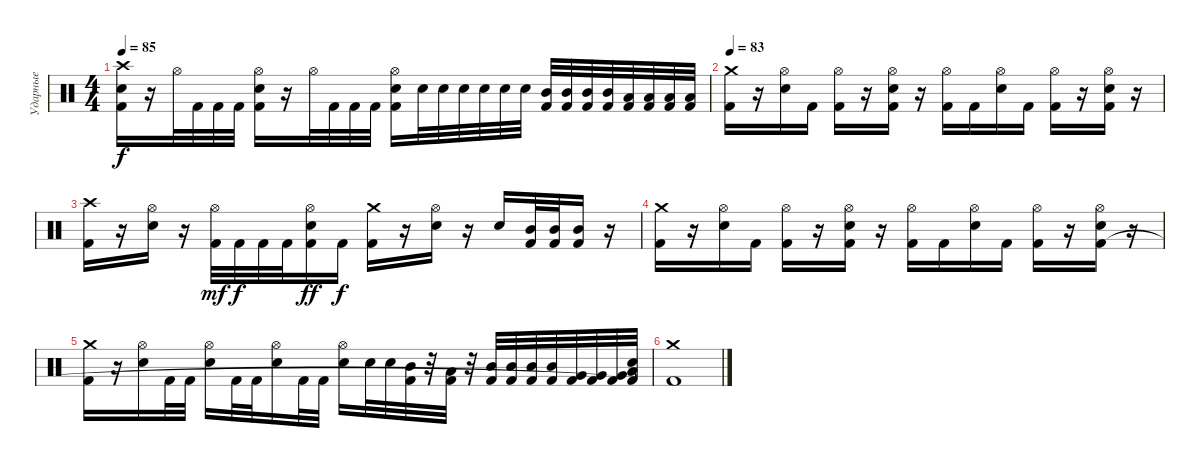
\track ("Ударные" "Ударные") {instrument percussion}
\staff {score}
\articulation defaults
\ts (4 4)
\tempo 85
\clef neutral
\ks c
("Crash high (hit)" "Electric Snare (hit)" "Kick (hit) 2").16{dy f} r.16 "Hi-Hat (open)".32 "Kick (hit) 2".32 "Kick (hit) 2".32 "Kick (hit) 2".32 ("Hi-Hat (open)" "Electric Snare (hit)" "Kick (hit) 2").16 r.16 "Hi-Hat (open)".32 "Kick (hit) 2".32 "Kick (hit) 2".32 "Kick (hit) 2".32 ("Hi-Hat (open)" "Electric Snare (hit)" "Kick (hit) 2").16 "Electric Snare (hit)".32 "Electric Snare (hit)".32 "Electric Snare (hit)".32 "Electric Snare (hit)".32 "Electric Snare (hit)".32 "Electric Snare (hit)".32 ("Mid Tom (hit)" "Kick (hit) 2").32 ("Mid Tom (hit)" "Kick (hit) 2").32 ("Mid Tom (hit)" "Kick (hit) 2").32 ("Mid Tom (hit)" "Kick (hit) 2").32 ("Low Tom (hit)" "Kick (hit) 2").32 ("Low Tom (hit)" "Kick (hit) 2").32 ("Low Tom (hit)" "Kick (hit) 2").32 ("Low Tom (hit)" "Kick (hit) 2").32 |
\tempo 83
("Crash medium (hit)" "Kick (hit) 2").16 r.16 ("Hi-Hat (open)" "Electric Snare (hit)").16 "Kick (hit) 2".16 ("Hi-Hat (open)" "Kick (hit) 2").16 r.16 ("Hi-Hat (open)" "Electric Snare (hit)" "Kick (hit) 2").16 r.16 ("Hi-Hat (open)" "Kick (hit) 2").16 "Kick (hit) 2".16 ("Hi-Hat (open)" "Electric Snare (hit)").16 "Kick (hit) 2".16 ("Hi-Hat (open)" "Kick (hit) 2").16 r.16 ("Hi-Hat (open)" "Electric Snare (hit)" "Kick (hit) 2").16 r.16 |
("Crash high (hit)" "Kick (hit) 2").16 r.16 ("Hi-Hat (open)" "Electric Snare (hit)").16 r.16 ("Hi-Hat (open)" "Kick (hit) 2").32{dy mf} "Kick (hit) 2".32{dy f} "Kick (hit) 2".32 "Kick (hit) 2".32 ("Hi-Hat (open)" "Electric Snare (hit)" "Kick (hit) 2").16{dy ff} "Kick (hit) 2".16{dy f} ("Crash medium (hit)" "Kick (hit) 2").16 r.16 ("Hi-Hat (open)" "Electric Snare (hit)").16 r.16 "Electric Snare (hit)".16 ("Mid Tom (hit)" "Kick (hit) 2").32 ("Mid Tom (hit)" "Kick (hit) 2").32 ("Mid Tom (hit)" "Kick (hit) 2").16 r.16 |
("Crash medium (hit)" "Kick (hit) 2").16 r.16 ("Hi-Hat (open)" "Electric Snare (hit)").16 "Kick (hit) 2".16 ("Hi-Hat (open)" "Kick (hit) 2").16 r.16 ("Hi-Hat (open)" "Electric Snare (hit)" "Kick (hit) 2").16 r.16 ("Hi-Hat (open)" "Kick (hit) 2").16 "Kick (hit) 2".16 ("Hi-Hat (open)" "Electric Snare (hit)").16 "Kick (hit) 2".16 ("Hi-Hat (open)" "Kick (hit) 2").16 r.16 ("Hi-Hat (open)" "Electric Snare (hit)" "Kick (hit) 2").16 r.16 |
("Crash medium (hit)" "Kick (hit) 2").16 r.16 ("Hi-Hat (open)" "Electric Snare (hit)").16 "Kick (hit) 2".32 "Kick (hit) 2".32 ("Hi-Hat (open)" "Electric Snare (hit)").16 "Kick (hit) 2".32 "Kick (hit) 2".32 ("Hi-Hat (open)" "Electric Snare (hit)").16 "Kick (hit) 2".32 "Kick (hit) 2".32 ("Hi-Hat (open)" "Electric Snare (hit)").16 "Electric Snare (hit)".32 "Electric Snare (hit)".32 ("Mid Tom (hit)" "Kick (hit) 2").32 r.32 ("Low Tom (hit)" "Kick (hit) 2").32 r.32 ("Mid Tom (hit)" "Kick (hit) 2").32 ("Mid Tom (hit)" "Kick (hit) 2").32 ("Mid Tom (hit)" "Kick (hit) 2").32 ("Mid Tom (hit)" "Kick (hit) 2").32 ("Very Low Tom (hit)" "Kick (hit) 2").32 ("Very Low Tom (hit)" "Kick (hit) 2").32 ("Very Low Tom (hit)" "Kick (hit) 2").32 ("Low Tom (hit)"{t} "Snare (hit)"{t} "Kick (hit) 2"{t}).32 |
("Crash medium (hit)" "Kick (hit) 2").1
